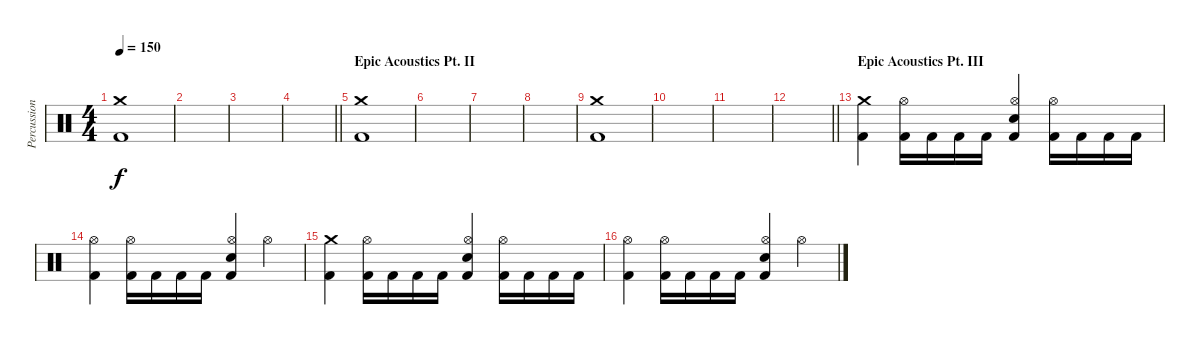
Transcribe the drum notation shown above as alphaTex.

\track ("Percussion" "Percussion") {instrument percussion}
\staff {score}
\articulation defaults
\ts (4 4)
\tempo 150
\clef neutral
\ks c
("Crash medium (hit)" "Kick (hit) 2").1{dy f} |
|
|
\barLineRight lightlight
|
\section ("" "Epic Acoustics Pt. II")
("Crash medium (hit)" "Kick (hit) 2").1 |
|
|
|
("Crash medium (hit)" "Kick (hit) 2").1 |
|
|
\barLineRight lightlight
|
\section ("" "Epic Acoustics Pt. III")
("Crash medium (hit)" "Kick (hit) 2").4 ("Hi-Hat (open)" "Kick (hit) 2").16 "Kick (hit) 2".16 "Kick (hit) 2".16 "Kick (hit) 2".16 ("Hi-Hat (open)" "Electric Snare (hit)" "Kick (hit) 2").4 ("Hi-Hat (open)" "Kick (hit) 2").16 "Kick (hit) 2".16 "Kick (hit) 2".16 "Kick (hit) 2".16 |
("Hi-Hat (open)" "Kick (hit) 2").4 ("Hi-Hat (open)" "Kick (hit) 2").16 "Kick (hit) 2".16 "Kick (hit) 2".16 "Kick (hit) 2".16 ("Hi-Hat (open)" "Electric Snare (hit)" "Kick (hit) 2").4 "Hi-Hat (open)".4 |
("Crash medium (hit)" "Kick (hit) 2").4 ("Hi-Hat (open)" "Kick (hit) 2").16 "Kick (hit) 2".16 "Kick (hit) 2".16 "Kick (hit) 2".16 ("Hi-Hat (open)" "Electric Snare (hit)" "Kick (hit) 2").4 ("Hi-Hat (open)" "Kick (hit) 2").16 "Kick (hit) 2".16 "Kick (hit) 2".16 "Kick (hit) 2".16 |
("Hi-Hat (open)" "Kick (hit) 2").4 ("Hi-Hat (open)" "Kick (hit) 2").16 "Kick (hit) 2".16 "Kick (hit) 2".16 "Kick (hit) 2".16 ("Hi-Hat (open)" "Electric Snare (hit)" "Kick (hit) 2").4 "Hi-Hat (open)".4
